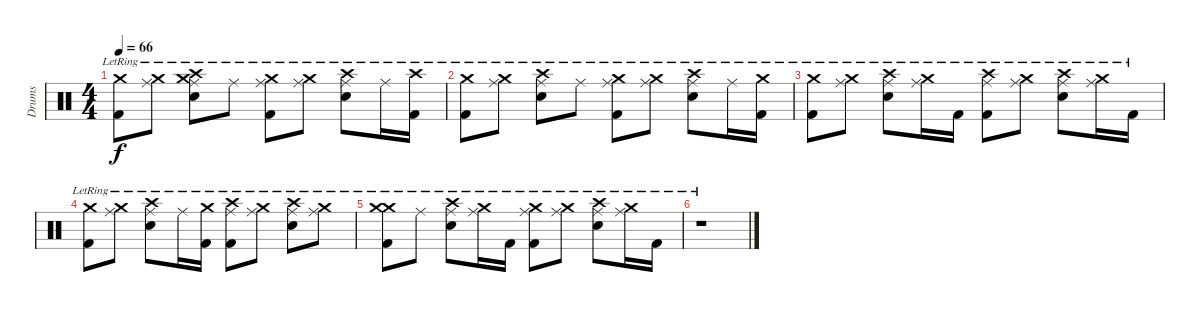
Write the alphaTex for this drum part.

\track ("Drums" "Drums") {instrument percussion}
\staff {score}
\articulation defaults
\ts (4 4)
\tempo 66
\clef neutral
\ks c
("Crash medium (hit)"{lr} "Kick (hit) 2"{lr}).8{dy f} ("Ride (middle)"{lr} "Crash medium (hit)").8 ("Snare (hit) 2"{lr} "Ride (middle)"{lr} "Crash medium (hit)"{lr} "Crash high (hit)").8 "Ride (middle)"{lr}.8 ("Kick (hit) 2"{lr} "Ride (middle)"{lr} "Crash medium (hit)"{lr}).8 ("Ride (middle)"{lr} "Crash medium (hit)").8 ("Snare (hit) 2"{lr} "Ride (middle)"{lr} "Crash high (hit)").8 "Ride (middle)"{lr}.16 ("Kick (hit) 2"{lr} "Crash high (hit)").16 |
("Crash medium (hit)"{lr} "Kick (hit) 2"{lr}).8 ("Ride (middle)"{lr} "Crash medium (hit)").8 ("Snare (hit) 2"{lr} "Ride (middle)"{lr} "Crash high (hit)").8 "Ride (middle)"{lr}.8 ("Kick (hit) 2"{lr} "Ride (middle)"{lr} "Crash medium (hit)"{lr}).8 ("Ride (middle)"{lr} "Crash medium (hit)").8 ("Snare (hit) 2"{lr} "Ride (middle)"{lr} "Crash high (hit)").8 "Ride (middle)"{lr}.16 ("Kick (hit) 2"{lr} "Crash medium (hit)").16 |
("Crash medium (hit)"{lr} "Kick (hit) 2"{lr}).8 ("Ride (middle)"{lr} "Crash medium (hit)"{lr}).8 ("Snare (hit) 2"{lr} "Ride (middle)"{lr} "Crash high (hit)").8 ("Ride (middle)"{lr} "Crash medium (hit)"{lr}).16 "Kick (hit) 2"{lr}.16 ("Kick (hit) 2"{lr} "Ride (middle)"{lr} "Crash high (hit)"{lr}).8 ("Ride (middle)"{lr} "Crash medium (hit)"{lr}).8 ("Snare (hit) 2"{lr} "Ride (middle)"{lr} "Crash high (hit)"{lr}).8 ("Ride (middle)"{lr} "Crash medium (hit)"{lr}).16 "Kick (hit) 2"{lr}.16 |
("Crash medium (hit)"{lr} "Kick (hit) 2"{lr}).8{volume 0} ("Ride (middle)"{lr} "Crash medium (hit)"{lr}).8 ("Snare (hit) 2"{lr} "Ride (middle)"{lr} "Crash high (hit)"{lr}).8 "Ride (middle)"{lr}.16 ("Kick (hit) 2"{lr} "Crash medium (hit)").16 ("Kick (hit) 2"{lr} "Ride (middle)"{lr} "Crash high (hit)"{lr}).8 ("Ride (middle)"{lr} "Crash medium (hit)").8 ("Snare (hit) 2"{lr} "Ride (middle)"{lr} "Crash high (hit)"{lr}).8 ("Ride (middle)"{lr} "Crash medium (hit)").8 |
("Crash medium (hit)" "Kick (hit) 2"{lr} "Crash medium (hit)"{lr}).8 "Ride (middle)"{lr}.8 ("Snare (hit) 2"{lr} "Ride (middle)"{lr} "Crash high (hit)"{lr}).8 ("Ride (middle)"{lr} "Crash medium (hit)"{lr}).16 "Kick (hit) 2"{lr}.16 ("Kick (hit) 2"{lr} "Ride (middle)"{lr} "Crash medium (hit)"{lr}).8 ("Ride (middle)"{lr} "Crash medium (hit)"{lr}).8 ("Snare (hit) 2"{lr} "Ride (middle)"{lr} "Crash high (hit)"{lr}).8 ("Ride (middle)"{lr} "Crash medium (hit)"{lr}).16 "Kick (hit) 2"{lr}.16 |
r.1
